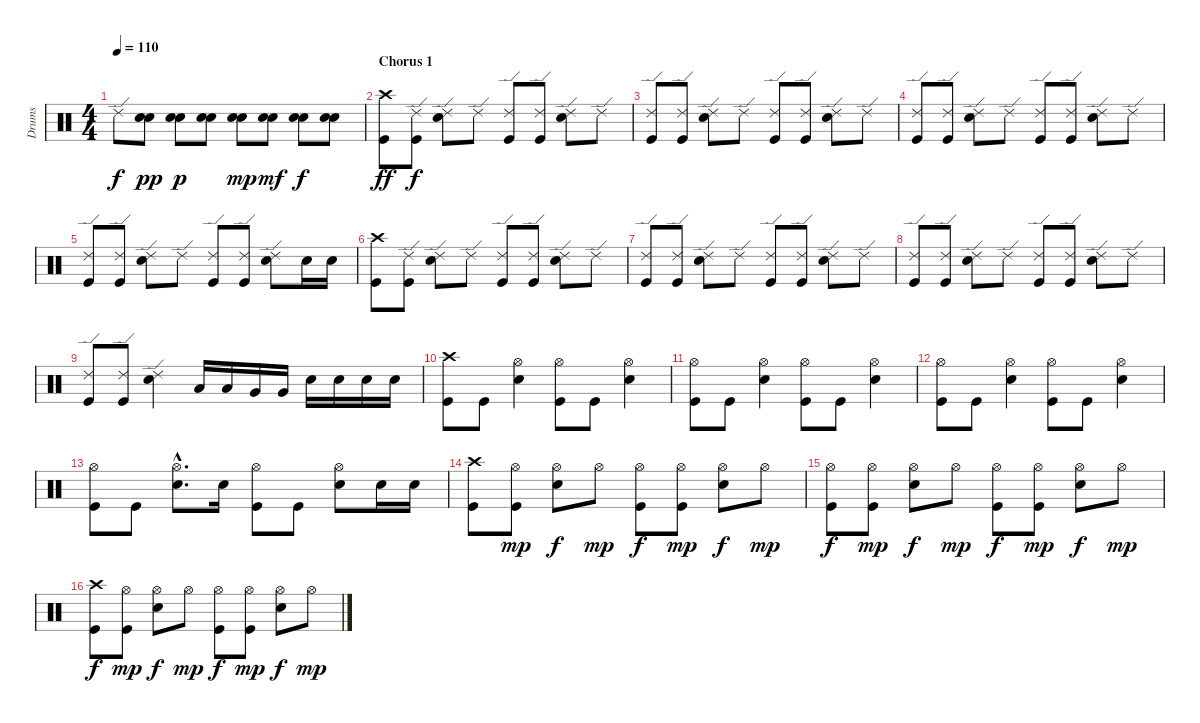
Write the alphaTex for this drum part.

\track ("Drums" "Drums") {instrument percussion}
\staff {score}
\articulation defaults
\ts (4 4)
\tempo 110
\clef neutral
\ks c "Ride (edge) 2".8{dy f}
("Electric Snare (hit)" "Electric Snare (hit)").8{dy pp} ("Electric Snare (hit)" "Electric Snare (hit)").8{dy p} ("Electric Snare (hit)" "Electric Snare (hit)").8 ("Electric Snare (hit)" "Electric Snare (hit)").8{dy mp} ("Electric Snare (hit)" "Electric Snare (hit)").8{dy mf} ("Electric Snare (hit)" "Electric Snare (hit)").8{dy f} ("Electric Snare (hit)" "Electric Snare (hit)").8 |
\section ("" "Chorus 1")
("Crash high (hit)" "Kick (hit)").8{dy ff} ("Ride (edge) 2" "Kick (hit)").8{dy f} ("Ride (edge) 2" "Electric Snare (hit)").8 "Ride (edge) 2".8 ("Ride (edge) 2" "Kick (hit)").8 ("Ride (edge) 2" "Kick (hit)").8 ("Ride (edge) 2" "Electric Snare (hit)").8 "Ride (edge) 2".8 |
("Ride (edge) 2" "Kick (hit)").8 ("Ride (edge) 2" "Kick (hit)").8 ("Ride (edge) 2" "Electric Snare (hit)").8 "Ride (edge) 2".8 ("Ride (edge) 2" "Kick (hit)").8 ("Ride (edge) 2" "Kick (hit)").8 ("Ride (edge) 2" "Electric Snare (hit)").8 "Ride (edge) 2".8 |
("Ride (edge) 2" "Kick (hit)").8 ("Ride (edge) 2" "Kick (hit)").8 ("Ride (edge) 2" "Electric Snare (hit)").8 "Ride (edge) 2".8 ("Ride (edge) 2" "Kick (hit)").8 ("Ride (edge) 2" "Kick (hit)").8 ("Ride (edge) 2" "Electric Snare (hit)").8 "Ride (edge) 2".8 |
("Ride (edge) 2" "Kick (hit)").8 ("Ride (edge) 2" "Kick (hit)").8 ("Ride (edge) 2" "Electric Snare (hit)").8 "Ride (edge) 2".8 ("Ride (edge) 2" "Kick (hit)").8 ("Ride (edge) 2" "Kick (hit)").8 ("Ride (edge) 2" "Electric Snare (hit)").8 "Electric Snare (hit)".16 "Electric Snare (hit)".16 |
("Crash high (hit)" "Kick (hit)").8 ("Ride (edge) 2" "Kick (hit)").8 ("Ride (edge) 2" "Electric Snare (hit)").8 "Ride (edge) 2".8 ("Ride (edge) 2" "Kick (hit)").8 ("Ride (edge) 2" "Kick (hit)").8 ("Ride (edge) 2" "Electric Snare (hit)").8 "Ride (edge) 2".8 |
("Ride (edge) 2" "Kick (hit)").8 ("Ride (edge) 2" "Kick (hit)").8 ("Ride (edge) 2" "Electric Snare (hit)").8 "Ride (edge) 2".8 ("Ride (edge) 2" "Kick (hit)").8 ("Ride (edge) 2" "Kick (hit)").8 ("Ride (edge) 2" "Electric Snare (hit)").8 "Ride (edge) 2".8 |
("Ride (edge) 2" "Kick (hit)").8 ("Ride (edge) 2" "Kick (hit)").8 ("Ride (edge) 2" "Electric Snare (hit)").8 "Ride (edge) 2".8 ("Ride (edge) 2" "Kick (hit)").8 ("Ride (edge) 2" "Kick (hit)").8 ("Ride (edge) 2" "Electric Snare (hit)").8 "Ride (edge) 2".8 |
("Ride (edge) 2" "Kick (hit)").8 ("Ride (edge) 2" "Kick (hit)").8 ("Ride (edge) 2" "Electric Snare (hit)").4 "Low Tom (hit)".16 "Low Tom (hit)".16 "Very Low Tom (hit)".16 "Very Low Tom (hit)".16 "Electric Snare (hit)".16 "Electric Snare (hit)".16 "Electric Snare (hit)".16 "Electric Snare (hit)".16 |
("Crash high (hit)" "Kick (hit)").8 "Kick (hit)".8 ("Hi-Hat (open)" "Electric Snare (hit)").4 ("Hi-Hat (open)" "Kick (hit)").8 "Kick (hit)".8 ("Hi-Hat (open)" "Electric Snare (hit)").4 |
("Hi-Hat (open)" "Kick (hit)").8 "Kick (hit)".8 ("Hi-Hat (open)" "Electric Snare (hit)").4 ("Hi-Hat (open)" "Kick (hit)").8 "Kick (hit)".8 ("Hi-Hat (open)" "Electric Snare (hit)").4 |
("Hi-Hat (open)" "Kick (hit)").8 "Kick (hit)".8 ("Hi-Hat (open)" "Electric Snare (hit)").4 ("Hi-Hat (open)" "Kick (hit)").8 "Kick (hit)".8 ("Hi-Hat (open)" "Electric Snare (hit)").4 |
("Hi-Hat (open)" "Kick (hit)").8 "Kick (hit)".8 ("Hi-Hat (open)"{hac} "Electric Snare (hit)"{hac}).8{d} "Electric Snare (hit)".16 ("Hi-Hat (open)" "Kick (hit)").8 "Kick (hit)".8 ("Hi-Hat (open)" "Electric Snare (hit)").8 "Electric Snare (hit)".16 "Electric Snare (hit)".16 |
("Crash high (hit)" "Kick (hit)").8 ("Hi-Hat (open)" "Kick (hit)").8{dy mp} ("Hi-Hat (open)" "Electric Snare (hit)").8{dy f} "Hi-Hat (open)".8{dy mp} ("Hi-Hat (open)" "Kick (hit)").8{dy f} ("Hi-Hat (open)" "Kick (hit)").8{dy mp} ("Hi-Hat (open)" "Electric Snare (hit)").8{dy f} "Hi-Hat (open)".8{dy mp} |
("Hi-Hat (open)" "Kick (hit)").8{dy f} ("Hi-Hat (open)" "Kick (hit)").8{dy mp} ("Hi-Hat (open)" "Electric Snare (hit)").8{dy f} "Hi-Hat (open)".8{dy mp} ("Hi-Hat (open)" "Kick (hit)").8{dy f} ("Hi-Hat (open)" "Kick (hit)").8{dy mp} ("Hi-Hat (open)" "Electric Snare (hit)").8{dy f} "Hi-Hat (open)".8{dy mp} |
("Crash high (hit)" "Kick (hit)").8{dy f} ("Hi-Hat (open)" "Kick (hit)").8{dy mp} ("Hi-Hat (open)" "Electric Snare (hit)").8{dy f} "Hi-Hat (open)".8{dy mp} ("Hi-Hat (open)" "Kick (hit)").8{dy f} ("Hi-Hat (open)" "Kick (hit)").8{dy mp} ("Hi-Hat (open)" "Electric Snare (hit)").8{dy f} "Hi-Hat (open)".8{dy mp}
